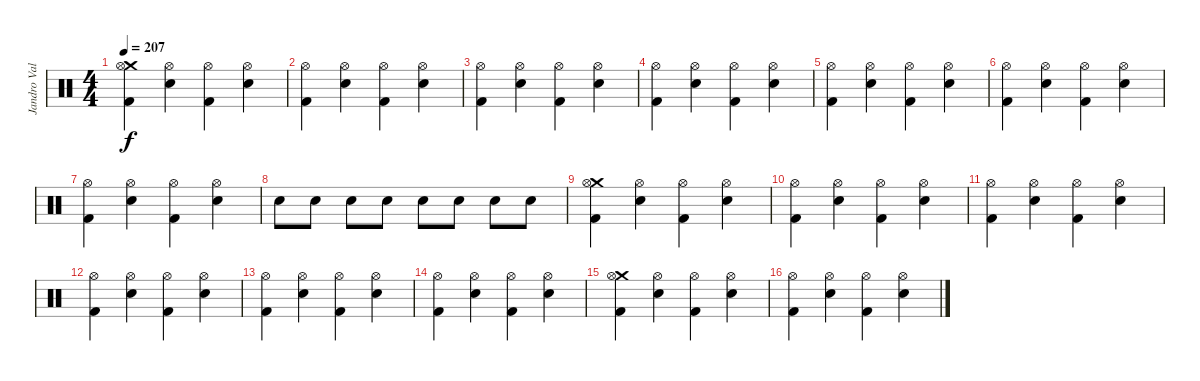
\track ("Jandro Valázquez" "Jandro Val") {instrument percussion}
\staff {score}
\articulation defaults
\ts (4 4)
\tempo 207
\clef neutral
\ks c
("Crash medium (hit)" "Hi-Hat (open)" "Kick (hit) 2").4{dy f} ("Hi-Hat (open)" "Snare (hit) 2").4 ("Hi-Hat (open)" "Kick (hit) 2").4 ("Hi-Hat (open)" "Snare (hit) 2").4 |
("Hi-Hat (open)" "Kick (hit) 2").4 ("Hi-Hat (open)" "Snare (hit) 2").4 ("Hi-Hat (open)" "Kick (hit) 2").4 ("Hi-Hat (open)" "Snare (hit) 2").4 |
("Hi-Hat (open)" "Kick (hit) 2").4 ("Hi-Hat (open)" "Snare (hit) 2").4 ("Hi-Hat (open)" "Kick (hit) 2").4 ("Hi-Hat (open)" "Snare (hit) 2").4 |
("Hi-Hat (open)" "Kick (hit) 2").4 ("Hi-Hat (open)" "Snare (hit) 2").4 ("Hi-Hat (open)" "Kick (hit) 2").4 ("Hi-Hat (open)" "Snare (hit) 2").4 |
("Hi-Hat (open)" "Kick (hit) 2").4 ("Hi-Hat (open)" "Snare (hit) 2").4 ("Hi-Hat (open)" "Kick (hit) 2").4 ("Hi-Hat (open)" "Snare (hit) 2").4 |
("Hi-Hat (open)" "Kick (hit) 2").4 ("Hi-Hat (open)" "Snare (hit) 2").4 ("Hi-Hat (open)" "Kick (hit) 2").4 ("Hi-Hat (open)" "Snare (hit) 2").4 |
("Hi-Hat (open)" "Kick (hit) 2").4 ("Hi-Hat (open)" "Snare (hit) 2").4 ("Hi-Hat (open)" "Kick (hit) 2").4 ("Hi-Hat (open)" "Snare (hit) 2").4 |
"Electric Snare (hit)".8 "Electric Snare (hit)".8 "Electric Snare (hit)".8 "Electric Snare (hit)".8 "Electric Snare (hit)".8 "Electric Snare (hit)".8 "Electric Snare (hit)".8 "Electric Snare (hit)".8 |
("Crash medium (hit)" "Hi-Hat (open)" "Kick (hit) 2").4 ("Hi-Hat (open)" "Snare (hit) 2").4 ("Hi-Hat (open)" "Kick (hit) 2").4 ("Hi-Hat (open)" "Snare (hit) 2").4 |
("Hi-Hat (open)" "Kick (hit) 2").4 ("Hi-Hat (open)" "Snare (hit) 2").4 ("Hi-Hat (open)" "Kick (hit) 2").4 ("Hi-Hat (open)" "Snare (hit) 2").4 |
("Hi-Hat (open)" "Kick (hit) 2").4 ("Hi-Hat (open)" "Snare (hit) 2").4 ("Hi-Hat (open)" "Kick (hit) 2").4 ("Hi-Hat (open)" "Snare (hit) 2").4 |
("Hi-Hat (open)" "Kick (hit) 2").4 ("Hi-Hat (open)" "Snare (hit) 2").4 ("Hi-Hat (open)" "Kick (hit) 2").4 ("Hi-Hat (open)" "Snare (hit) 2").4 |
("Hi-Hat (open)" "Kick (hit) 2").4 ("Hi-Hat (open)" "Snare (hit) 2").4 ("Hi-Hat (open)" "Kick (hit) 2").4 ("Hi-Hat (open)" "Snare (hit) 2").4 |
("Hi-Hat (open)" "Kick (hit) 2").4 ("Hi-Hat (open)" "Snare (hit) 2").4 ("Hi-Hat (open)" "Kick (hit) 2").4 ("Hi-Hat (open)" "Snare (hit) 2").4 |
("Crash medium (hit)" "Hi-Hat (open)" "Kick (hit) 2").4 ("Hi-Hat (open)" "Snare (hit) 2").4 ("Hi-Hat (open)" "Kick (hit) 2").4 ("Hi-Hat (open)" "Snare (hit) 2").4 |
("Hi-Hat (open)" "Kick (hit) 2").4 ("Hi-Hat (open)" "Snare (hit) 2").4 ("Hi-Hat (open)" "Kick (hit) 2").4 ("Hi-Hat (open)" "Snare (hit) 2").4
